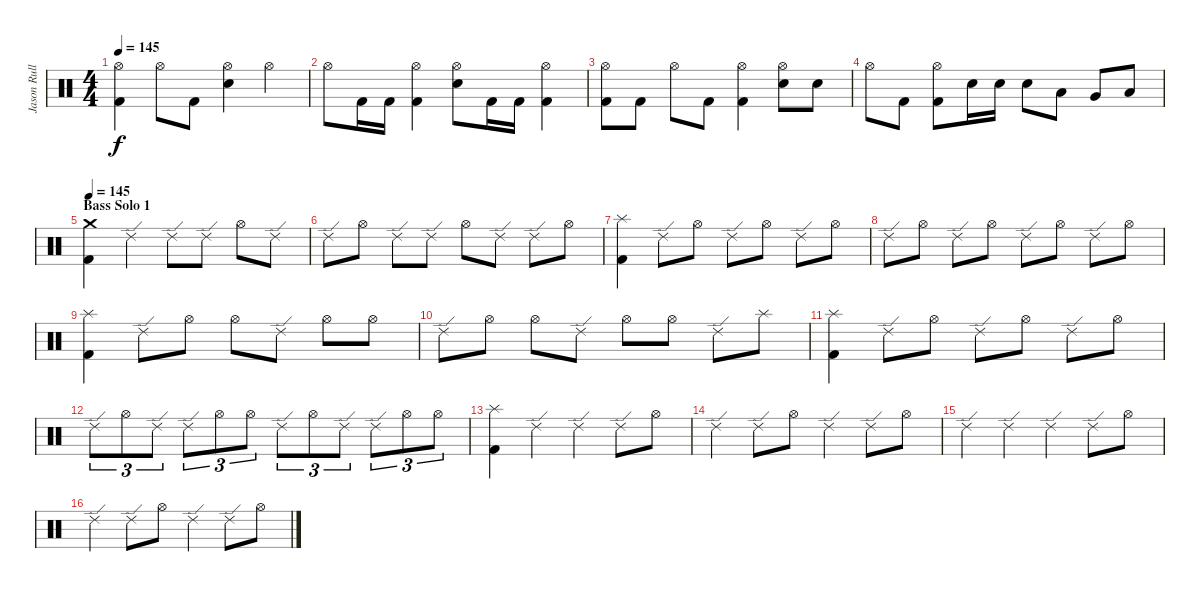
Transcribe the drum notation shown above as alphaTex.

\track ("Jason Rullo" "Jason Rull") {instrument percussion}
\staff {score}
\articulation defaults
\ts (4 4)
\tempo 145
\clef neutral
\ks c
("Hi-Hat (open)" "Kick (hit) 2").4{dy f} "Hi-Hat (open)".8 "Kick (hit) 2".8 ("Hi-Hat (open)" "Electric Snare (hit)").4 "Hi-Hat (open)".4 |
"Hi-Hat (open)".8 "Kick (hit) 2".16 "Kick (hit) 2".16 ("Hi-Hat (open)" "Kick (hit) 2").4 ("Electric Snare (hit)" "Hi-Hat (open)").8 "Kick (hit) 2".16 "Kick (hit) 2".16 ("Kick (hit) 2" "Hi-Hat (open)").4 |
("Hi-Hat (open)" "Kick (hit) 2").8 "Kick (hit) 2".8 "Hi-Hat (open)".8 "Kick (hit) 2".8 ("Kick (hit) 2" "Hi-Hat (open)").4 ("Electric Snare (hit)" "Hi-Hat (open)").8 "Electric Snare (hit)".8 |
"Hi-Hat (open)".8 "Kick (hit) 2".8 ("Hi-Hat (open)" "Kick (hit) 2").8 "Electric Snare (hit)".16 "Electric Snare (hit)".16 "Electric Snare (hit)".8 "Low Tom (hit)".8 "Very Low Tom (hit)".8 "Low Floor Tom (hit)".8 |
\section ("" "Bass Solo 1")
\tempo 145
("Crash medium (hit)" "Kick (hit) 2").4 "Ride (edge) 2".4 "Ride (edge) 2".8 "Ride (edge) 2".8 "Hi-Hat (open)".8 "Ride (edge) 2".8 |
"Ride (edge) 2".8 "Hi-Hat (open)".8 "Ride (edge) 2".8 "Ride (edge) 2".8 "Hi-Hat (open)".8 "Ride (edge) 2".8 "Ride (edge) 2".8 "Hi-Hat (open)".8 |
("Splash (hit)" "Kick (hit) 2").4 "Ride (edge) 2".8 "Hi-Hat (open)".8 "Ride (edge) 2".8 "Hi-Hat (open)".8 "Ride (edge) 2".8 "Hi-Hat (open)".8 |
"Ride (edge) 2".8 "Hi-Hat (open)".8 "Ride (edge) 2".8 "Hi-Hat (open)".8 "Ride (edge) 2".8 "Hi-Hat (open)".8 "Ride (edge) 2".8 "Hi-Hat (open)".8 |
("Splash (hit)" "Kick (hit) 2").4 "Ride (edge) 2".8 "Hi-Hat (open)".8 "Hi-Hat (open)".8 "Ride (edge) 2".8 "Hi-Hat (open)".8 "Hi-Hat (open)".8 |
"Ride (edge) 2".8 "Hi-Hat (open)".8 "Hi-Hat (open)".8 "Ride (edge) 2".8 "Hi-Hat (open)".8 "Hi-Hat (open)".8 "Ride (edge) 2".8 "Splash (hit)".8 |
("Splash (hit)" "Kick (hit) 2").4 "Ride (edge) 2".8 "Hi-Hat (open)".8 "Ride (edge) 2".8 "Hi-Hat (open)".8 "Ride (edge) 2".8 "Hi-Hat (open)".8 |
"Ride (edge) 2".8{tu (3 2)} "Hi-Hat (open)".8{tu (3 2)} "Ride (edge) 2".8{tu (3 2)} "Ride (edge) 2".8{tu (3 2)} "Hi-Hat (open)".8{tu (3 2)} "Hi-Hat (open)".8{tu (3 2)} "Ride (edge) 2".8{tu (3 2)} "Hi-Hat (open)".8{tu (3 2)} "Ride (edge) 2".8{tu (3 2)} "Ride (edge) 2".8{tu (3 2)} "Hi-Hat (open)".8{tu (3 2)} "Hi-Hat (open)".8{tu (3 2)} |
("Splash (hit)" "Kick (hit) 2").4 "Ride (edge) 2".4 "Ride (edge) 2".4 "Ride (edge) 2".8 "Hi-Hat (open)".8 |
"Ride (edge) 2".4 "Ride (edge) 2".8 "Hi-Hat (open)".8 "Ride (edge) 2".4 "Ride (edge) 2".8 "Hi-Hat (open)".8 |
"Ride (edge) 2".4 "Ride (edge) 2".4 "Ride (edge) 2".4 "Ride (edge) 2".8 "Hi-Hat (open)".8 |
"Ride (edge) 2".4 "Ride (edge) 2".8 "Hi-Hat (open)".8 "Ride (edge) 2".4 "Ride (edge) 2".8 "Hi-Hat (open)".8
